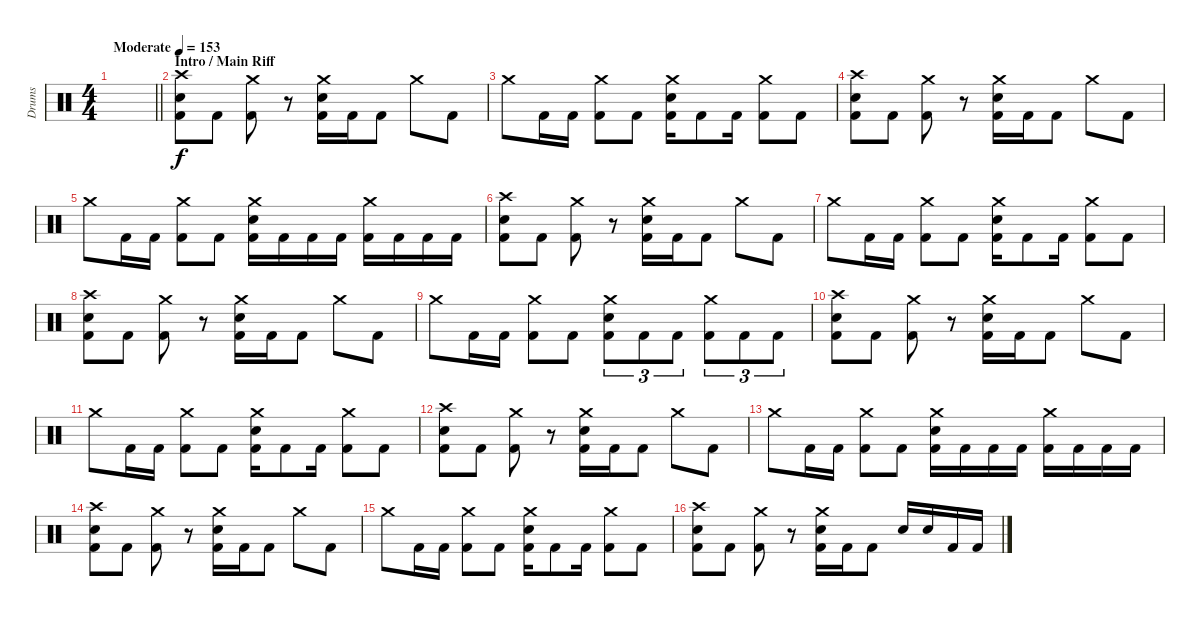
\track ("Drums" "Drums") {instrument percussion}
\staff {score}
\articulation defaults
\ts (4 4)
\tempo (153 "Moderate")
\clef neutral
\barLineRight lightlight
\ks c
|
\section ("" "Intro / Main Riff")
("Crash high (hit)" "Snare (hit) 2" "Kick (hit) 2").8 "Kick (hit) 2".8 ("Crash medium (hit)" "Kick (hit) 2").8 r.8 ("Snare (hit) 2" "Crash medium (hit)" "Kick (hit) 2").16 "Kick (hit) 2".16 "Kick (hit) 2".8 "Crash medium (hit)".8 "Kick (hit) 2".8 |
"Crash medium (hit)".8 "Kick (hit) 2".16 "Kick (hit) 2".16 ("Crash medium (hit)" "Kick (hit) 2").8 "Kick (hit) 2".8 ("Snare (hit) 2" "Crash medium (hit)" "Kick (hit) 2").16 "Kick (hit) 2".8 "Kick (hit) 2".16 ("Crash medium (hit)" "Kick (hit) 2").8 "Kick (hit) 2".8 |
("Crash high (hit)" "Snare (hit) 2" "Kick (hit) 2").8 "Kick (hit) 2".8 ("Crash medium (hit)" "Kick (hit) 2").8 r.8 ("Snare (hit) 2" "Crash medium (hit)" "Kick (hit) 2").16 "Kick (hit) 2".16 "Kick (hit) 2".8 "Crash medium (hit)".8 "Kick (hit) 2".8 |
"Crash medium (hit)".8 "Kick (hit) 2".16 "Kick (hit) 2".16 ("Crash medium (hit)" "Kick (hit) 2").8 "Kick (hit) 2".8 ("Snare (hit) 2" "Crash medium (hit)" "Kick (hit) 2").16 "Kick (hit) 2".16 "Kick (hit) 2".16 "Kick (hit) 2".16 ("Crash medium (hit)" "Kick (hit) 2").16 "Kick (hit) 2".16 "Kick (hit) 2".16 "Kick (hit) 2".16 |
("Crash high (hit)" "Snare (hit) 2" "Kick (hit) 2").8 "Kick (hit) 2".8 ("Crash medium (hit)" "Kick (hit) 2").8 r.8 ("Snare (hit) 2" "Crash medium (hit)" "Kick (hit) 2").16 "Kick (hit) 2".16 "Kick (hit) 2".8 "Crash medium (hit)".8 "Kick (hit) 2".8 |
"Crash medium (hit)".8 "Kick (hit) 2".16 "Kick (hit) 2".16 ("Crash medium (hit)" "Kick (hit) 2").8 "Kick (hit) 2".8 ("Snare (hit) 2" "Crash medium (hit)" "Kick (hit) 2").16 "Kick (hit) 2".8 "Kick (hit) 2".16 ("Crash medium (hit)" "Kick (hit) 2").8 "Kick (hit) 2".8 |
("Crash high (hit)" "Snare (hit) 2" "Kick (hit) 2").8 "Kick (hit) 2".8 ("Crash medium (hit)" "Kick (hit) 2").8 r.8 ("Snare (hit) 2" "Crash medium (hit)" "Kick (hit) 2").16 "Kick (hit) 2".16 "Kick (hit) 2".8 "Crash medium (hit)".8 "Kick (hit) 2".8 |
"Crash medium (hit)".8 "Kick (hit) 2".16 "Kick (hit) 2".16 ("Crash medium (hit)" "Kick (hit) 2").8 "Kick (hit) 2".8 ("Snare (hit) 2" "Crash medium (hit)" "Kick (hit) 2").8{tu (3 2)} "Kick (hit) 2".8{tu (3 2)} "Kick (hit) 2".8{tu (3 2)} ("Crash medium (hit)" "Kick (hit) 2").8{tu (3 2)} "Kick (hit) 2".8{tu (3 2)} "Kick (hit) 2".8{tu (3 2)} |
("Crash high (hit)" "Snare (hit) 2" "Kick (hit) 2").8 "Kick (hit) 2".8 ("Crash medium (hit)" "Kick (hit) 2").8 r.8 ("Snare (hit) 2" "Crash medium (hit)" "Kick (hit) 2").16 "Kick (hit) 2".16 "Kick (hit) 2".8 "Crash medium (hit)".8 "Kick (hit) 2".8 |
"Crash medium (hit)".8 "Kick (hit) 2".16 "Kick (hit) 2".16 ("Crash medium (hit)" "Kick (hit) 2").8 "Kick (hit) 2".8 ("Snare (hit) 2" "Crash medium (hit)" "Kick (hit) 2").16 "Kick (hit) 2".8 "Kick (hit) 2".16 ("Crash medium (hit)" "Kick (hit) 2").8 "Kick (hit) 2".8 |
("Crash high (hit)" "Snare (hit) 2" "Kick (hit) 2").8 "Kick (hit) 2".8 ("Crash medium (hit)" "Kick (hit) 2").8 r.8 ("Snare (hit) 2" "Crash medium (hit)" "Kick (hit) 2").16 "Kick (hit) 2".16 "Kick (hit) 2".8 "Crash medium (hit)".8 "Kick (hit) 2".8 |
"Crash medium (hit)".8 "Kick (hit) 2".16 "Kick (hit) 2".16 ("Crash medium (hit)" "Kick (hit) 2").8 "Kick (hit) 2".8 ("Snare (hit) 2" "Crash medium (hit)" "Kick (hit) 2").16 "Kick (hit) 2".16 "Kick (hit) 2".16 "Kick (hit) 2".16 ("Crash medium (hit)" "Kick (hit) 2").16 "Kick (hit) 2".16 "Kick (hit) 2".16 "Kick (hit) 2".16 |
("Crash high (hit)" "Snare (hit) 2" "Kick (hit) 2").8 "Kick (hit) 2".8 ("Crash medium (hit)" "Kick (hit) 2").8 r.8 ("Snare (hit) 2" "Crash medium (hit)" "Kick (hit) 2").16 "Kick (hit) 2".16 "Kick (hit) 2".8 "Crash medium (hit)".8 "Kick (hit) 2".8 |
"Crash medium (hit)".8 "Kick (hit) 2".16 "Kick (hit) 2".16 ("Crash medium (hit)" "Kick (hit) 2").8 "Kick (hit) 2".8 ("Snare (hit) 2" "Crash medium (hit)" "Kick (hit) 2").16 "Kick (hit) 2".8 "Kick (hit) 2".16 ("Crash medium (hit)" "Kick (hit) 2").8 "Kick (hit) 2".8 |
("Crash high (hit)" "Snare (hit) 2" "Kick (hit) 2").8 "Kick (hit) 2".8 ("Crash medium (hit)" "Kick (hit) 2").8 r.8 ("Snare (hit) 2" "Crash medium (hit)" "Kick (hit) 2").16 "Kick (hit) 2".16 "Kick (hit) 2".8 "Snare (hit) 2".16 "Snare (hit) 2".16 "Kick (hit) 2".16 "Kick (hit) 2".16
